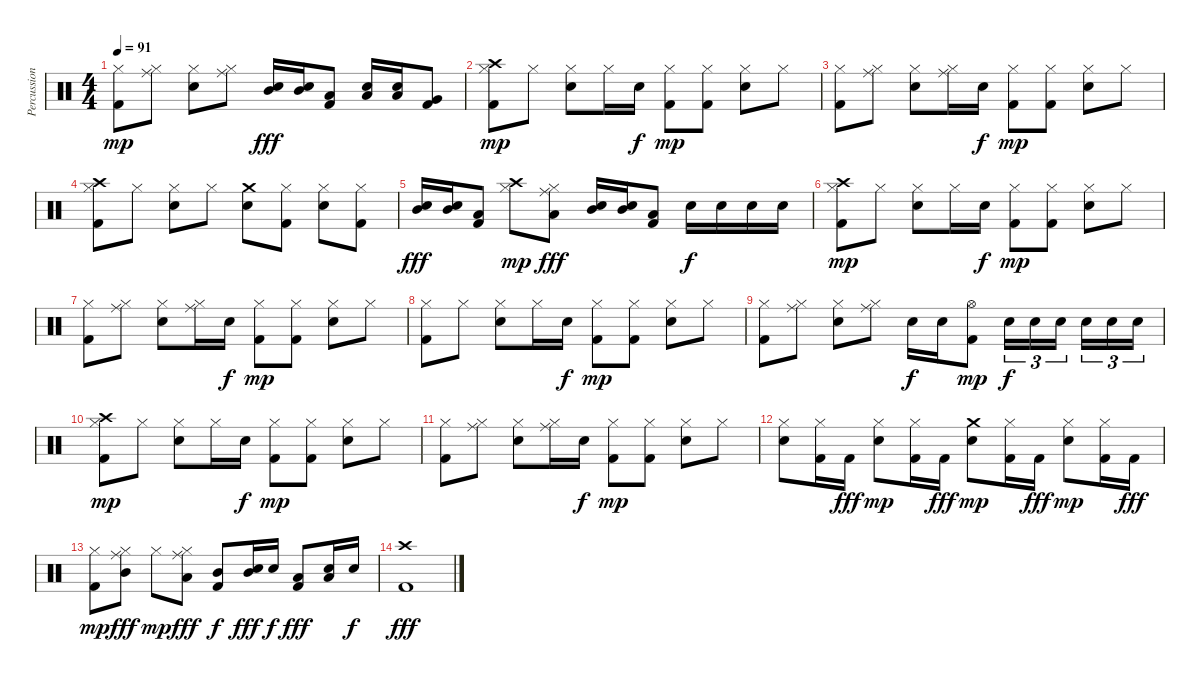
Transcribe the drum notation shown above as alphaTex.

\track ("Percussion" "Percussion") {instrument percussion}
\staff {score}
\articulation defaults
\ts (4 4)
\tempo 91
\clef neutral
\ks c
("Kick (hit) 2" "Hi-Hat (closed)").8{dy mp} ("Ride (middle)" "Hi-Hat (closed)").8 ("Electric Snare (hit)" "Hi-Hat (closed)").8 ("Ride (middle)" "Hi-Hat (closed)").8 ("Electric Snare (hit)" "Mid Tom (hit)").16{dy fff} ("Electric Snare (hit)" "Mid Tom (hit)").16 ("Kick (hit) 2" "Low Tom (hit)").8 ("Electric Snare (hit)" "Low Tom (hit)").16 ("Electric Snare (hit)" "Low Tom (hit)").16 ("Kick (hit) 2" "Very Low Tom (hit)").8 |
("Kick (hit) 2" "Hi-Hat (closed)" "Crash high (hit)").8{dy mp} "Hi-Hat (closed)".8 ("Electric Snare (hit)" "Hi-Hat (closed)").8 "Hi-Hat (closed)".16 "Electric Snare (hit)".16{dy f} ("Kick (hit) 2" "Hi-Hat (closed)").8{dy mp} ("Kick (hit) 2" "Hi-Hat (closed)").8 ("Electric Snare (hit)" "Hi-Hat (closed)").8 "Hi-Hat (closed)".8 |
("Kick (hit) 2" "Hi-Hat (closed)").8 ("Ride (middle)" "Hi-Hat (closed)").8 ("Electric Snare (hit)" "Hi-Hat (closed)").8 ("Ride (middle)" "Hi-Hat (closed)").16 "Electric Snare (hit)".16{dy f} ("Kick (hit) 2" "Hi-Hat (closed)").8{dy mp} ("Kick (hit) 2" "Hi-Hat (closed)").8 ("Electric Snare (hit)" "Hi-Hat (closed)").8 "Hi-Hat (closed)".8 |
("Kick (hit) 2" "Hi-Hat (closed)" "Crash high (hit)").8 "Hi-Hat (closed)".8 ("Electric Snare (hit)" "Hi-Hat (closed)").8 "Hi-Hat (closed)".8 ("Electric Snare (hit)" "Crash medium (hit)").8 ("Kick (hit) 2" "Hi-Hat (closed)").8 ("Electric Snare (hit)" "Hi-Hat (closed)").8 ("Kick (hit) 2" "Hi-Hat (closed)").8 |
("Electric Snare (hit)" "Mid Tom (hit)").16{dy fff} ("Electric Snare (hit)" "Mid Tom (hit)").16 ("Kick (hit) 2" "Low Tom (hit)").8 ("Crash high (hit)" "Hi-Hat (closed)").8{dy mp} ("Ride (middle)" "Hi-Hat (closed)" "Low Tom (hit)").8{dy fff} ("Electric Snare (hit)" "Mid Tom (hit)").16 ("Electric Snare (hit)" "Mid Tom (hit)").16 ("Kick (hit) 2" "Low Tom (hit)").8 "Electric Snare (hit)".16{dy f} "Electric Snare (hit)".16 "Electric Snare (hit)".16 "Electric Snare (hit)".16 |
("Kick (hit) 2" "Hi-Hat (closed)" "Crash high (hit)").8{dy mp} "Hi-Hat (closed)".8 ("Electric Snare (hit)" "Hi-Hat (closed)").8 "Hi-Hat (closed)".16 "Electric Snare (hit)".16{dy f} ("Kick (hit) 2" "Hi-Hat (closed)").8{dy mp} ("Kick (hit) 2" "Hi-Hat (closed)").8 ("Electric Snare (hit)" "Hi-Hat (closed)").8 "Hi-Hat (closed)".8 |
("Kick (hit) 2" "Hi-Hat (closed)").8 ("Ride (middle)" "Hi-Hat (closed)").8 ("Electric Snare (hit)" "Hi-Hat (closed)").8 ("Ride (middle)" "Hi-Hat (closed)").16 "Electric Snare (hit)".16{dy f} ("Kick (hit) 2" "Hi-Hat (closed)").8{dy mp} ("Kick (hit) 2" "Hi-Hat (closed)").8 ("Electric Snare (hit)" "Hi-Hat (closed)").8 "Hi-Hat (closed)".8 |
("Kick (hit) 2" "Hi-Hat (closed)").8 "Hi-Hat (closed)".8 ("Electric Snare (hit)" "Hi-Hat (closed)").8 "Hi-Hat (closed)".16 "Electric Snare (hit)".16{dy f} ("Kick (hit) 2" "Hi-Hat (closed)").8{dy mp} ("Kick (hit) 2" "Hi-Hat (closed)").8 ("Electric Snare (hit)" "Hi-Hat (closed)").8 "Hi-Hat (closed)".8 |
("Kick (hit) 2" "Hi-Hat (closed)").8 ("Ride (middle)" "Hi-Hat (closed)").8 ("Electric Snare (hit)" "Hi-Hat (closed)").8 ("Ride (middle)" "Hi-Hat (closed)").8 "Electric Snare (hit)".16{dy f} "Electric Snare (hit)".16 ("Kick (hit) 2" "Hi-Hat (open)").8{dy mp} "Electric Snare (hit)".16{tu (3 2) dy f} "Electric Snare (hit)".16{tu (3 2)} "Electric Snare (hit)".16{tu (3 2) beam splitsecondary} "Electric Snare (hit)".16{tu (3 2)} "Electric Snare (hit)".16{tu (3 2)} "Electric Snare (hit)".16{tu (3 2)} |
("Kick (hit) 2" "Hi-Hat (closed)" "Crash high (hit)").8{dy mp} "Hi-Hat (closed)".8 ("Electric Snare (hit)" "Hi-Hat (closed)").8 "Hi-Hat (closed)".16 "Electric Snare (hit)".16{dy f} ("Kick (hit) 2" "Hi-Hat (closed)").8{dy mp} ("Kick (hit) 2" "Hi-Hat (closed)").8 ("Electric Snare (hit)" "Hi-Hat (closed)").8 "Hi-Hat (closed)".8 |
("Kick (hit) 2" "Hi-Hat (closed)").8 ("Ride (middle)" "Hi-Hat (closed)").8 ("Electric Snare (hit)" "Hi-Hat (closed)").8 ("Ride (middle)" "Hi-Hat (closed)").16 "Electric Snare (hit)".16{dy f} ("Kick (hit) 2" "Hi-Hat (closed)").8{dy mp} ("Kick (hit) 2" "Hi-Hat (closed)").8 ("Electric Snare (hit)" "Hi-Hat (closed)").8 "Hi-Hat (closed)".8 |
("Electric Snare (hit)" "Hi-Hat (closed)").8 ("Kick (hit) 2" "Hi-Hat (closed)").16 "Kick (hit) 2".16{dy fff} ("Electric Snare (hit)" "Hi-Hat (closed)").8{dy mp} ("Kick (hit) 2" "Hi-Hat (closed)").16 "Kick (hit) 2".16{dy fff} ("Electric Snare (hit)" "Crash medium (hit)").8{dy mp} ("Kick (hit) 2" "Hi-Hat (closed)").16 "Kick (hit) 2".16{dy fff} ("Electric Snare (hit)" "Hi-Hat (closed)").8{dy mp} ("Kick (hit) 2" "Hi-Hat (closed)").16 "Kick (hit) 2".16{dy fff} |
("Kick (hit) 2" "Hi-Hat (closed)").8{dy mp} ("Ride (middle)" "Hi-Hat (closed)" "Mid Tom (hit)").8{dy fff} "Hi-Hat (closed)".8{dy mp} ("Ride (middle)" "Hi-Hat (closed)" "Low Tom (hit)").8{dy fff} ("Kick (hit) 2" "Mid Tom (hit)").8{dy f} ("Electric Snare (hit)" "Mid Tom (hit)").16{dy fff} "Electric Snare (hit)".16{dy f} ("Kick (hit) 2" "Low Tom (hit)").8{dy fff} ("Electric Snare (hit)" "Low Tom (hit)").16 "Electric Snare (hit)".16{dy f} |
("Kick (hit) 2" "Crash high (hit)").1{dy fff}
